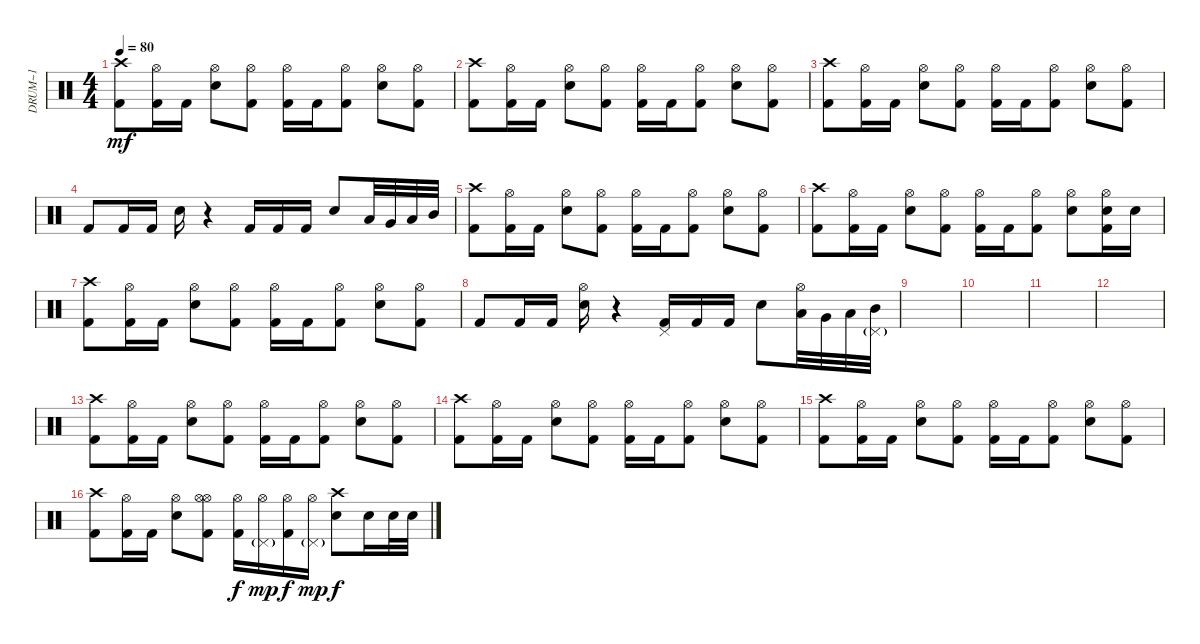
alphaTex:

\track ("DRUM~1" "DRUM~1") {instrument percussion}
\staff {score}
\articulation defaults
\ts (4 4)
\tempo 80
\clef neutral
\ks c
("Crash high (hit)" "Kick (hit) 2").8{dy mf} ("Hi-Hat (open)" "Kick (hit) 2").16 "Kick (hit) 2".16 ("Hi-Hat (open)" "Snare (hit) 2").8 ("Hi-Hat (open)" "Kick (hit) 2").8 ("Hi-Hat (open)" "Kick (hit) 2").16 "Kick (hit) 2".16 ("Hi-Hat (open)" "Kick (hit) 2").8 ("Hi-Hat (open)" "Snare (hit) 2").8 ("Hi-Hat (open)" "Kick (hit) 2").8 |
("Crash high (hit)" "Kick (hit) 2").8 ("Hi-Hat (open)" "Kick (hit) 2").16 "Kick (hit) 2".16 ("Hi-Hat (open)" "Snare (hit) 2").8 ("Hi-Hat (open)" "Kick (hit) 2").8 ("Hi-Hat (open)" "Kick (hit) 2").16 "Kick (hit) 2".16 ("Hi-Hat (open)" "Kick (hit) 2").8 ("Hi-Hat (open)" "Snare (hit) 2").8 ("Hi-Hat (open)" "Kick (hit) 2").8 |
("Crash high (hit)" "Kick (hit) 2").8 ("Hi-Hat (open)" "Kick (hit) 2").16 "Kick (hit) 2".16 ("Hi-Hat (open)" "Snare (hit) 2").8 ("Hi-Hat (open)" "Kick (hit) 2").8 ("Hi-Hat (open)" "Kick (hit) 2").16 "Kick (hit) 2".16 ("Hi-Hat (open)" "Kick (hit) 2").8 ("Hi-Hat (open)" "Snare (hit) 2").8 ("Hi-Hat (open)" "Kick (hit) 2").8 |
"Kick (hit) 2".8 "Kick (hit) 2".16 "Kick (hit) 2".16 "Snare (hit) 2".16 r.4 "Kick (hit) 2".16 "Kick (hit) 2".16 "Kick (hit) 2".16 "Snare (hit) 2".8 "Low Floor Tom (hit)".32 "Very Low Tom (hit)".32 "Low Tom (hit)".32 "Mid Tom (hit)".32 |
("Crash high (hit)" "Kick (hit) 2").8 ("Hi-Hat (open)" "Kick (hit) 2").16 "Kick (hit) 2".16 ("Hi-Hat (open)" "Snare (hit) 2").8 ("Hi-Hat (open)" "Kick (hit) 2").8 ("Hi-Hat (open)" "Kick (hit) 2").16 "Kick (hit) 2".16 ("Hi-Hat (open)" "Kick (hit) 2").8 ("Hi-Hat (open)" "Snare (hit) 2").8 ("Hi-Hat (open)" "Kick (hit) 2").8 |
("Crash high (hit)" "Kick (hit) 2").8 ("Hi-Hat (open)" "Kick (hit) 2").16 "Kick (hit) 2".16 ("Hi-Hat (open)" "Snare (hit) 2").8 ("Hi-Hat (open)" "Kick (hit) 2").8 ("Hi-Hat (open)" "Kick (hit) 2").16 "Kick (hit) 2".16 ("Hi-Hat (open)" "Kick (hit) 2").8 ("Hi-Hat (open)" "Snare (hit) 2").8 ("Hi-Hat (open)" "Snare (hit) 2" "Kick (hit) 2").16 "Snare (hit) 2".16 |
("Crash high (hit)" "Kick (hit) 2").8 ("Hi-Hat (open)" "Kick (hit) 2").16 "Kick (hit) 2".16 ("Hi-Hat (open)" "Snare (hit) 2").8 ("Hi-Hat (open)" "Kick (hit) 2").8 ("Hi-Hat (open)" "Kick (hit) 2").16 "Kick (hit) 2".16 ("Hi-Hat (open)" "Kick (hit) 2").8 ("Hi-Hat (open)" "Snare (hit) 2").8 ("Hi-Hat (open)" "Kick (hit) 2").8 |
"Kick (hit) 2".8 "Kick (hit) 2".16 "Kick (hit) 2".16 ("Snare (hit) 2" "Hi-Hat (open)").16 r.4 ("Kick (hit) 2" "Pedal Hi-Hat (hit)").16 "Kick (hit) 2".16 "Kick (hit) 2".16 "Snare (hit) 2".8 ("Hi-Hat (open)" "Low Floor Tom (hit)").32 "Very Low Tom (hit)".32 "Low Tom (hit)".32 ("Pedal Hi-Hat (hit)"{g} "Mid Tom (hit)").32 |
|
|
|
|
("Crash high (hit)" "Kick (hit) 2").8 ("Hi-Hat (open)" "Kick (hit) 2").16 "Kick (hit) 2".16 ("Hi-Hat (open)" "Snare (hit) 2").8 ("Hi-Hat (open)" "Kick (hit) 2").8 ("Hi-Hat (open)" "Kick (hit) 2").16 "Kick (hit) 2".16 ("Hi-Hat (open)" "Kick (hit) 2").8 ("Hi-Hat (open)" "Snare (hit) 2").8 ("Hi-Hat (open)" "Kick (hit) 2").8 |
("Crash high (hit)" "Kick (hit) 2").8 ("Hi-Hat (open)" "Kick (hit) 2").16 "Kick (hit) 2".16 ("Hi-Hat (open)" "Snare (hit) 2").8 ("Hi-Hat (open)" "Kick (hit) 2").8 ("Hi-Hat (open)" "Kick (hit) 2").16 "Kick (hit) 2".16 ("Hi-Hat (open)" "Kick (hit) 2").8 ("Hi-Hat (open)" "Snare (hit) 2").8 ("Hi-Hat (open)" "Kick (hit) 2").8 |
("Crash high (hit)" "Kick (hit) 2").8 ("Hi-Hat (open)" "Kick (hit) 2").16 "Kick (hit) 2".16 ("Hi-Hat (open)" "Snare (hit) 2").8 ("Hi-Hat (open)" "Kick (hit) 2").8 ("Hi-Hat (open)" "Kick (hit) 2").16 "Kick (hit) 2".16 ("Hi-Hat (open)" "Kick (hit) 2").8 ("Hi-Hat (open)" "Snare (hit) 2").8 ("Hi-Hat (open)" "Kick (hit) 2").8 |
("Crash high (hit)" "Kick (hit) 2").8 ("Hi-Hat (open)" "Kick (hit) 2").16 "Kick (hit) 2".16 ("Hi-Hat (open)" "Snare (hit) 2").8 ("Hi-Hat (open)" "Kick (hit) 2" "Hi-Hat (open)").8 ("Kick (hit) 2" "Hi-Hat (open)").16{dy f} ("Pedal Hi-Hat (hit)"{g} "Hi-Hat (open)").16{dy mp} ("Kick (hit) 2" "Hi-Hat (open)").16{dy f} ("Pedal Hi-Hat (hit)"{g} "Hi-Hat (open)").16{dy mp} ("Snare (hit) 2" "Crash high (hit)").8{dy f} "Snare (hit) 2".16 "Snare (hit) 2".32 "Snare (hit) 2".32
